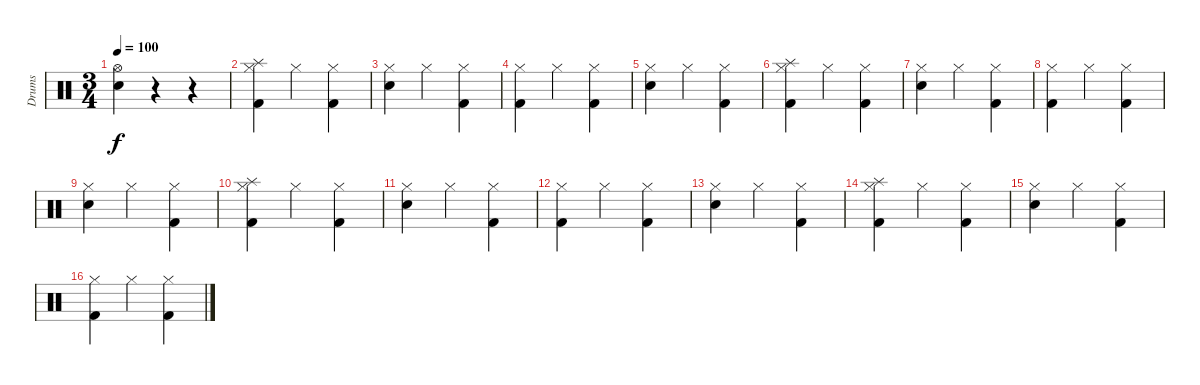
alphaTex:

\track ("Drums" "Drums") {instrument percussion}
\staff {score}
\articulation defaults
\ts (3 4)
\tempo 100
\clef neutral
\ks c
("Hi-Hat (open)" "Electric Snare (hit)").4{dy f} r.4 r.4 |
("Hi-Hat (closed)" "Splash (hit)" "Kick (hit) 2").4 "Hi-Hat (closed)".4 ("Hi-Hat (closed)" "Kick (hit) 2").4 |
("Hi-Hat (closed)" "Electric Snare (hit)").4 "Hi-Hat (closed)".4 ("Hi-Hat (closed)" "Kick (hit) 2").4 |
("Hi-Hat (closed)" "Kick (hit) 2").4 "Hi-Hat (closed)".4 ("Hi-Hat (closed)" "Kick (hit) 2").4 |
("Hi-Hat (closed)" "Electric Snare (hit)").4 "Hi-Hat (closed)".4 ("Hi-Hat (closed)" "Kick (hit) 2").4 |
("Hi-Hat (closed)" "Splash (hit)" "Kick (hit) 2").4 "Hi-Hat (closed)".4 ("Hi-Hat (closed)" "Kick (hit) 2").4 |
("Hi-Hat (closed)" "Electric Snare (hit)").4 "Hi-Hat (closed)".4 ("Hi-Hat (closed)" "Kick (hit) 2").4 |
("Hi-Hat (closed)" "Kick (hit) 2").4 "Hi-Hat (closed)".4 ("Hi-Hat (closed)" "Kick (hit) 2").4 |
("Hi-Hat (closed)" "Electric Snare (hit)").4 "Hi-Hat (closed)".4 ("Hi-Hat (closed)" "Kick (hit) 2").4 |
("Hi-Hat (closed)" "Splash (hit)" "Kick (hit) 2").4 "Hi-Hat (closed)".4 ("Hi-Hat (closed)" "Kick (hit) 2").4 |
("Hi-Hat (closed)" "Electric Snare (hit)").4 "Hi-Hat (closed)".4 ("Hi-Hat (closed)" "Kick (hit) 2").4 |
("Hi-Hat (closed)" "Kick (hit) 2").4 "Hi-Hat (closed)".4 ("Hi-Hat (closed)" "Kick (hit) 2").4 |
("Hi-Hat (closed)" "Electric Snare (hit)").4 "Hi-Hat (closed)".4 ("Hi-Hat (closed)" "Kick (hit) 2").4 |
("Hi-Hat (closed)" "Splash (hit)" "Kick (hit) 2").4 "Hi-Hat (closed)".4 ("Hi-Hat (closed)" "Kick (hit) 2").4 |
("Hi-Hat (closed)" "Electric Snare (hit)").4 "Hi-Hat (closed)".4 ("Hi-Hat (closed)" "Kick (hit) 2").4 |
("Hi-Hat (closed)" "Kick (hit) 2").4 "Hi-Hat (closed)".4 ("Hi-Hat (closed)" "Kick (hit) 2").4
